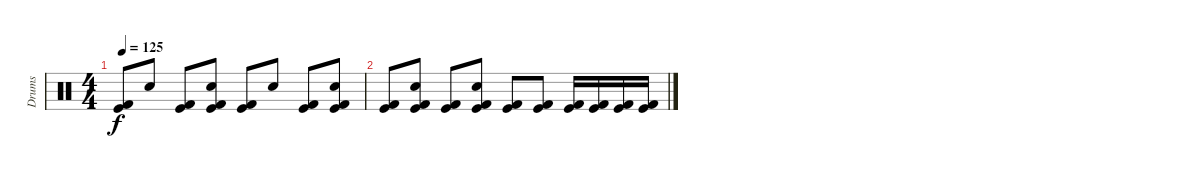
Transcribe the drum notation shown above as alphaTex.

\track ("Drums" "Drums") {instrument percussion}
\staff {score}
\articulation defaults
\ts (4 4)
\tempo 125
\clef neutral
\ks c
("Kick (hit)" "Kick (hit) 2").8{dy f} "Snare (hit) 2".8 ("Kick (hit)" "Kick (hit) 2").8 ("Snare (hit) 2" "Kick (hit)" "Kick (hit) 2").8 ("Kick (hit)" "Kick (hit) 2").8 "Snare (hit) 2".8 ("Kick (hit)" "Kick (hit) 2").8 ("Snare (hit) 2" "Kick (hit)" "Kick (hit) 2").8 |
("Kick (hit)" "Kick (hit) 2").8 ("Snare (hit) 2" "Kick (hit)" "Kick (hit) 2").8 ("Kick (hit)" "Kick (hit) 2").8 ("Snare (hit) 2" "Kick (hit)" "Kick (hit) 2").8 ("Kick (hit)" "Kick (hit) 2").8 ("Kick (hit)" "Kick (hit) 2").8 ("Kick (hit)" "Kick (hit) 2").16 ("Kick (hit)" "Kick (hit) 2").16 ("Kick (hit)" "Kick (hit) 2").16 ("Kick (hit)" "Kick (hit) 2").16
